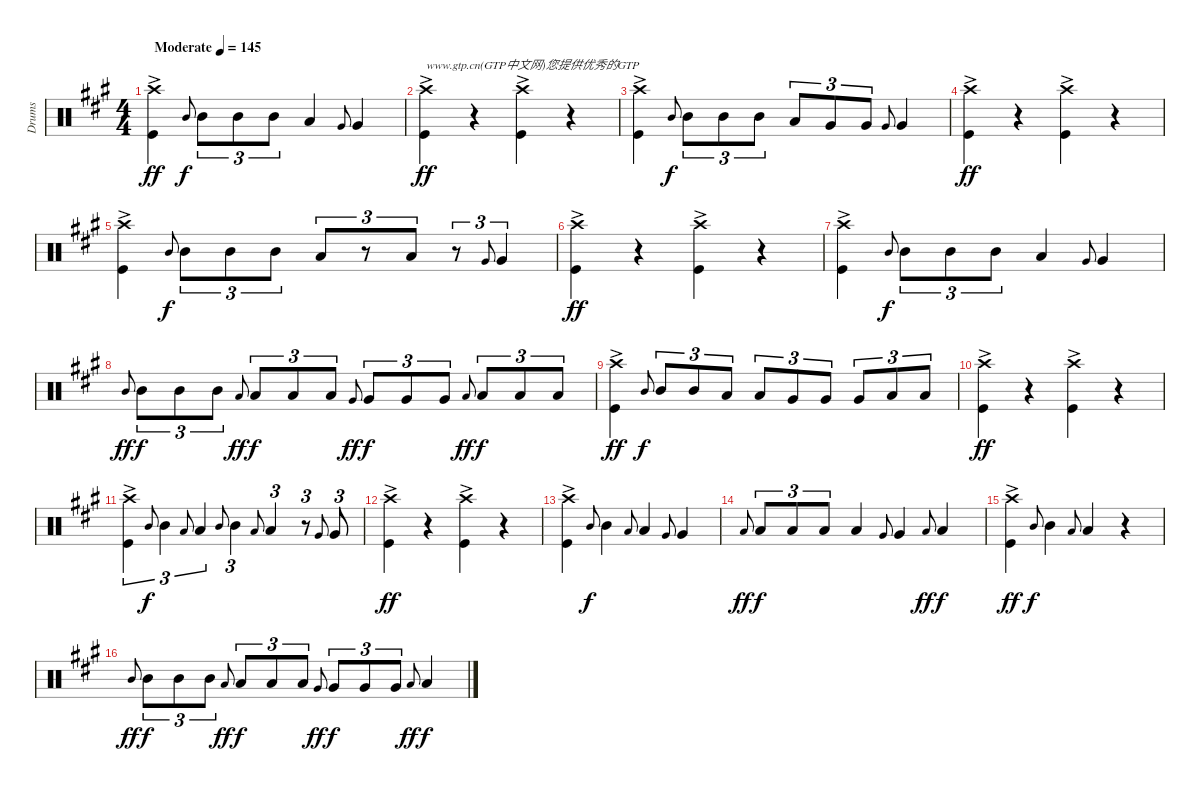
\track ("Drums" "Drums") {instrument percussion}
\staff {score}
\articulation defaults
\ts (4 4)
\tempo (145 "Moderate")
\clef neutral
\ks f#minor
("Crash high (hit)"{ac} "Kick (hit)"{ac}).4{dy ff} "Mid Tom (hit)".8{gr onbeat dy f} "Mid Tom (hit)".8{tu (3 2)} "Mid Tom (hit)".8{tu (3 2)} "Mid Tom (hit)".8{tu (3 2)} "Low Tom (hit)".4 "Very Low Tom (hit)".8{gr onbeat} "Very Low Tom (hit)".4 |
("Crash high (hit)"{ac} "Kick (hit)"{ac}).4{txt "www.gtp.cn(GTP中文网)您提供优秀的GTP" dy ff} r.4 ("Crash high (hit)"{ac} "Kick (hit)"{ac}).4 r.4 |
("Crash high (hit)"{ac} "Kick (hit)"{ac}).4 "Mid Tom (hit)".8{gr onbeat dy f} "Mid Tom (hit)".8{tu (3 2)} "Mid Tom (hit)".8{tu (3 2)} "Mid Tom (hit)".8{tu (3 2)} "Low Tom (hit)".8{tu (3 2)} "Very Low Tom (hit)".8{tu (3 2)} "Very Low Tom (hit)".8{tu (3 2)} "Very Low Tom (hit)".8{gr onbeat} "Very Low Tom (hit)".4 |
("Crash high (hit)"{ac} "Kick (hit)"{ac}).4{dy ff} r.4 ("Crash high (hit)"{ac} "Kick (hit)"{ac}).4 r.4 |
("Crash high (hit)"{ac} "Kick (hit)"{ac}).4 "Mid Tom (hit)".8{gr onbeat dy f} "Mid Tom (hit)".8{tu (3 2)} "Mid Tom (hit)".8{tu (3 2)} "Mid Tom (hit)".8{tu (3 2)} "Low Tom (hit)".8{tu (3 2)} r.8{tu (3 2)} "Low Tom (hit)".8{tu (3 2)} r.8{tu (3 2)} "Very Low Tom (hit)".8{gr onbeat} "Very Low Tom (hit)".4{tu (3 2)} |
("Crash high (hit)"{ac} "Kick (hit)"{ac}).4{dy ff} r.4 ("Crash high (hit)"{ac} "Kick (hit)"{ac}).4 r.4 |
("Crash high (hit)"{ac} "Kick (hit)"{ac}).4 "Mid Tom (hit)".8{gr onbeat dy f} "Mid Tom (hit)".8{tu (3 2)} "Mid Tom (hit)".8{tu (3 2)} "Mid Tom (hit)".8{tu (3 2)} "Low Tom (hit)".4 "Very Low Tom (hit)".8{gr onbeat} "Very Low Tom (hit)".4 |
"Mid Tom (hit)".8{gr onbeat dy ff} "Mid Tom (hit)".8{tu (3 2) dy f} "Mid Tom (hit)".8{tu (3 2)} "Mid Tom (hit)".8{tu (3 2)} "Low Tom (hit)".8{gr onbeat dy ff} "Low Tom (hit)".8{tu (3 2) dy f} "Low Tom (hit)".8{tu (3 2)} "Low Tom (hit)".8{tu (3 2)} "Very Low Tom (hit)".8{gr onbeat dy ff} "Very Low Tom (hit)".8{tu (3 2) dy f} "Very Low Tom (hit)".8{tu (3 2)} "Very Low Tom (hit)".8{tu (3 2)} "Low Floor Tom (hit)".8{gr onbeat dy ff} "Low Floor Tom (hit)".8{tu (3 2) dy f} "Low Floor Tom (hit)".8{tu (3 2)} "Low Floor Tom (hit)".8{tu (3 2)} |
("Crash high (hit)"{ac} "Kick (hit)"{ac}).4{dy ff} "Mid Tom (hit)".8{gr onbeat dy f} "Mid Tom (hit)".8{tu (3 2)} "Mid Tom (hit)".8{tu (3 2)} "Low Tom (hit)".8{tu (3 2)} "Low Tom (hit)".8{tu (3 2)} "Very Low Tom (hit)".8{tu (3 2)} "Very Low Tom (hit)".8{tu (3 2)} "Very Low Tom (hit)".8{tu (3 2)} "Low Floor Tom (hit)".8{tu (3 2)} "Low Floor Tom (hit)".8{tu (3 2)} |
("Crash high (hit)"{ac} "Kick (hit)"{ac}).4{dy ff} r.4 ("Crash high (hit)"{ac} "Kick (hit)"{ac}).4 r.4 |
("Crash high (hit)"{ac} "Kick (hit)"{ac}).4{tu (3 2)} "Mid Tom (hit)".8{gr onbeat dy f} "Mid Tom (hit)".4{tu (3 2)} "Low Tom (hit)".8{gr onbeat} "Low Tom (hit)".4{tu (3 2)} "Mid Tom (hit)".8{gr onbeat} "Mid Tom (hit)".4{tu (3 2)} "Low Tom (hit)".8{gr onbeat} "Low Tom (hit)".4{tu (3 2)} r.8{tu (3 2)} "Very Low Tom (hit)".8{gr onbeat} "Very Low Tom (hit)".8{tu (3 2)} |
("Crash high (hit)"{ac} "Kick (hit)"{ac}).4{dy ff} r.4 ("Crash high (hit)"{ac} "Kick (hit)"{ac}).4 r.4 |
("Crash high (hit)"{ac} "Kick (hit)"{ac}).4 "Mid Tom (hit)".8{gr onbeat dy f} "Mid Tom (hit)".4 "Low Tom (hit)".8{gr onbeat} "Low Tom (hit)".4 "Very Low Tom (hit)".8{gr onbeat} "Very Low Tom (hit)".4 |
"Low Tom (hit)".8{gr onbeat dy ff} "Low Tom (hit)".8{tu (3 2) dy f} "Low Tom (hit)".8{tu (3 2)} "Low Tom (hit)".8{tu (3 2)} "Low Tom (hit)".4 "Very Low Tom (hit)".8{gr onbeat} "Very Low Tom (hit)".4 "Low Floor Tom (hit)".8{gr onbeat dy ff} "Low Floor Tom (hit)".4{dy f} |
("Crash high (hit)"{ac} "Kick (hit)"{ac}).4{dy ff} "Mid Tom (hit)".8{gr onbeat dy f} "Mid Tom (hit)".4 "Low Tom (hit)".8{gr onbeat} "Low Tom (hit)".4 r.4 |
"Mid Tom (hit)".8{gr onbeat dy ff} "Mid Tom (hit)".8{tu (3 2) dy f} "Mid Tom (hit)".8{tu (3 2)} "Mid Tom (hit)".8{tu (3 2)} "Low Tom (hit)".8{gr onbeat dy ff} "Low Tom (hit)".8{tu (3 2) dy f} "Low Tom (hit)".8{tu (3 2)} "Low Tom (hit)".8{tu (3 2)} "Very Low Tom (hit)".8{gr onbeat dy ff} "Very Low Tom (hit)".8{tu (3 2) dy f} "Very Low Tom (hit)".8{tu (3 2)} "Very Low Tom (hit)".8{tu (3 2)} "Low Floor Tom (hit)".8{gr onbeat dy ff} "Low Floor Tom (hit)".4{dy f}
